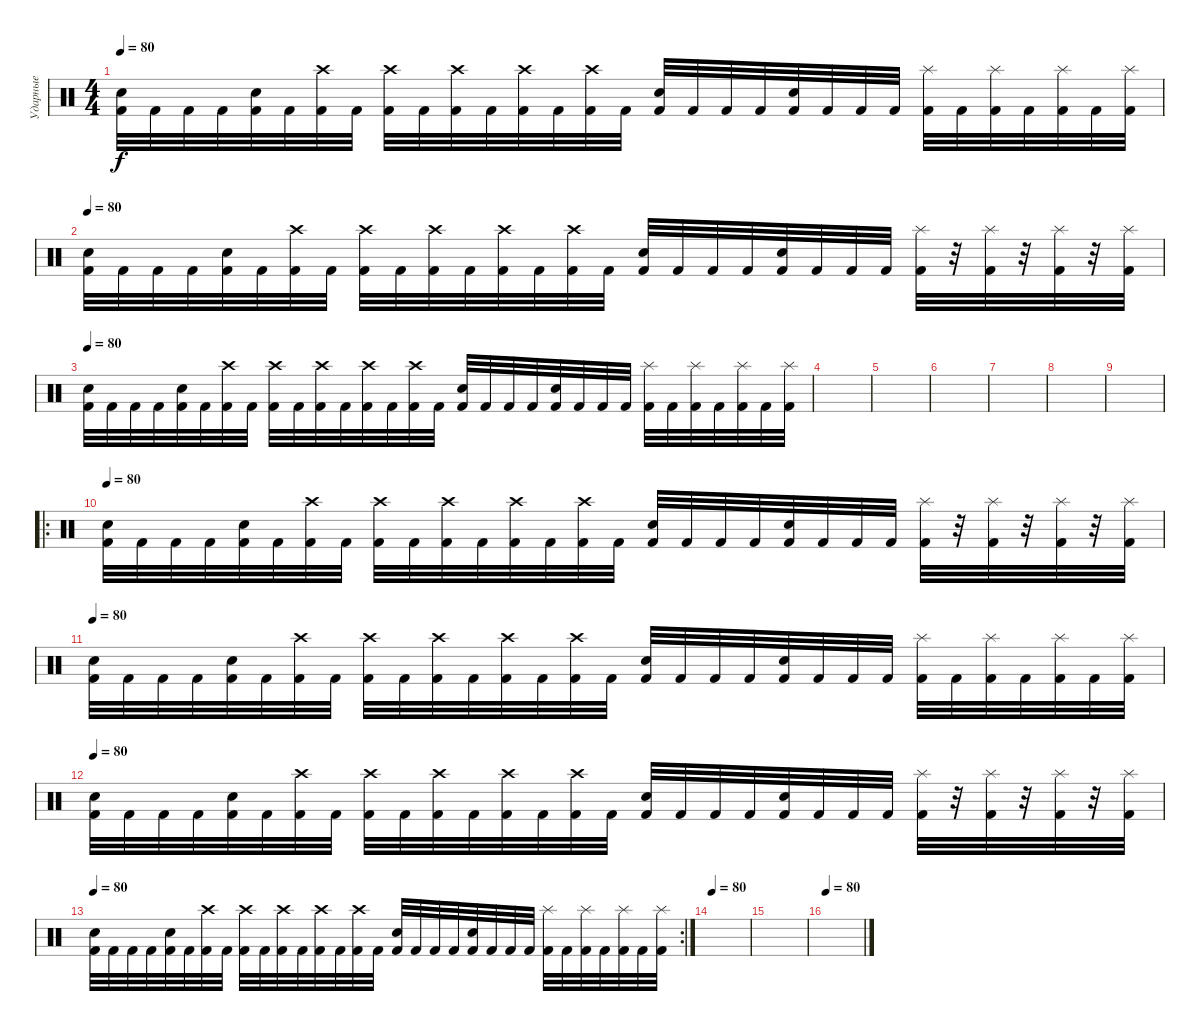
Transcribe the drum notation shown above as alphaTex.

\track ("Ударные" "Ударные") {instrument percussion}
\staff {score}
\articulation defaults
\ts (4 4)
\tempo 80
\clef neutral
\ks c
("Snare (hit) 2" "Kick (hit) 2").32{dy f} "Kick (hit) 2".32 "Kick (hit) 2".32 "Kick (hit) 2".32 ("Snare (hit) 2" "Kick (hit) 2").32 "Kick (hit) 2".32 ("Crash high (hit)" "Kick (hit) 2").32 "Kick (hit) 2".32 ("Crash high (hit)" "Kick (hit) 2").32 "Kick (hit) 2".32 ("Crash high (hit)" "Kick (hit) 2").32 "Kick (hit) 2".32 ("Crash high (hit)" "Kick (hit) 2").32 "Kick (hit) 2".32 ("Crash high (hit)" "Kick (hit) 2").32 "Kick (hit) 2".32 ("Snare (hit) 2" "Kick (hit) 2").32 "Kick (hit) 2".32 "Kick (hit) 2".32 "Kick (hit) 2".32 ("Snare (hit) 2" "Kick (hit) 2").32 "Kick (hit) 2".32 "Kick (hit) 2".32 "Kick (hit) 2".32 ("Splash (hit)" "Kick (hit) 2").32 "Kick (hit) 2".32 ("Splash (hit)" "Kick (hit) 2").32 "Kick (hit) 2".32 ("Splash (hit)" "Kick (hit) 2").32 "Kick (hit) 2".32 ("Splash (hit)" "Kick (hit) 2").32 |
\tempo 80
("Snare (hit) 2" "Kick (hit) 2").32{volume 16} "Kick (hit) 2".32 "Kick (hit) 2".32 "Kick (hit) 2".32 ("Snare (hit) 2" "Kick (hit) 2").32 "Kick (hit) 2".32 ("Crash high (hit)" "Kick (hit) 2").32 "Kick (hit) 2".32 ("Crash high (hit)" "Kick (hit) 2").32 "Kick (hit) 2".32 ("Crash high (hit)" "Kick (hit) 2").32 "Kick (hit) 2".32 ("Crash high (hit)" "Kick (hit) 2").32 "Kick (hit) 2".32 ("Crash high (hit)" "Kick (hit) 2").32 "Kick (hit) 2".32 ("Snare (hit) 2" "Kick (hit) 2").32 "Kick (hit) 2".32 "Kick (hit) 2".32 "Kick (hit) 2".32 ("Snare (hit) 2" "Kick (hit) 2").32 "Kick (hit) 2".32 "Kick (hit) 2".32 "Kick (hit) 2".32 ("Splash (hit)" "Kick (hit) 2").32 r.32 ("Splash (hit)" "Kick (hit) 2").32 r.32 ("Splash (hit)" "Kick (hit) 2").32 r.32 ("Splash (hit)" "Kick (hit) 2").32 |
\tempo 80
("Snare (hit) 2" "Kick (hit) 2").32 "Kick (hit) 2".32 "Kick (hit) 2".32 "Kick (hit) 2".32 ("Snare (hit) 2" "Kick (hit) 2").32 "Kick (hit) 2".32 ("Crash high (hit)" "Kick (hit) 2").32 "Kick (hit) 2".32 ("Crash high (hit)" "Kick (hit) 2").32 "Kick (hit) 2".32 ("Crash high (hit)" "Kick (hit) 2").32 "Kick (hit) 2".32 ("Crash high (hit)" "Kick (hit) 2").32 "Kick (hit) 2".32 ("Crash high (hit)" "Kick (hit) 2").32 "Kick (hit) 2".32 ("Snare (hit) 2" "Kick (hit) 2").32 "Kick (hit) 2".32 "Kick (hit) 2".32 "Kick (hit) 2".32 ("Snare (hit) 2" "Kick (hit) 2").32 "Kick (hit) 2".32 "Kick (hit) 2".32 "Kick (hit) 2".32 ("Splash (hit)" "Kick (hit) 2").32 "Kick (hit) 2".32 ("Splash (hit)" "Kick (hit) 2").32 "Kick (hit) 2".32 ("Splash (hit)" "Kick (hit) 2").32 "Kick (hit) 2".32 ("Splash (hit)" "Kick (hit) 2").32 |
|
|
|
|
|
|
\ro
\tempo 80
("Snare (hit) 2" "Kick (hit) 2").32{volume 16} "Kick (hit) 2".32 "Kick (hit) 2".32 "Kick (hit) 2".32 ("Snare (hit) 2" "Kick (hit) 2").32 "Kick (hit) 2".32 ("Crash high (hit)" "Kick (hit) 2").32 "Kick (hit) 2".32 ("Crash high (hit)" "Kick (hit) 2").32 "Kick (hit) 2".32 ("Crash high (hit)" "Kick (hit) 2").32 "Kick (hit) 2".32 ("Crash high (hit)" "Kick (hit) 2").32 "Kick (hit) 2".32 ("Crash high (hit)" "Kick (hit) 2").32 "Kick (hit) 2".32 ("Snare (hit) 2" "Kick (hit) 2").32 "Kick (hit) 2".32 "Kick (hit) 2".32 "Kick (hit) 2".32 ("Snare (hit) 2" "Kick (hit) 2").32 "Kick (hit) 2".32 "Kick (hit) 2".32 "Kick (hit) 2".32 ("Splash (hit)" "Kick (hit) 2").32 r.32 ("Splash (hit)" "Kick (hit) 2").32 r.32 ("Splash (hit)" "Kick (hit) 2").32 r.32 ("Splash (hit)" "Kick (hit) 2").32 |
\tempo 80
("Snare (hit) 2" "Kick (hit) 2").32 "Kick (hit) 2".32 "Kick (hit) 2".32 "Kick (hit) 2".32 ("Snare (hit) 2" "Kick (hit) 2").32 "Kick (hit) 2".32 ("Crash high (hit)" "Kick (hit) 2").32 "Kick (hit) 2".32 ("Crash high (hit)" "Kick (hit) 2").32 "Kick (hit) 2".32 ("Crash high (hit)" "Kick (hit) 2").32 "Kick (hit) 2".32 ("Crash high (hit)" "Kick (hit) 2").32 "Kick (hit) 2".32 ("Crash high (hit)" "Kick (hit) 2").32 "Kick (hit) 2".32 ("Snare (hit) 2" "Kick (hit) 2").32 "Kick (hit) 2".32 "Kick (hit) 2".32 "Kick (hit) 2".32 ("Snare (hit) 2" "Kick (hit) 2").32 "Kick (hit) 2".32 "Kick (hit) 2".32 "Kick (hit) 2".32 ("Splash (hit)" "Kick (hit) 2").32 "Kick (hit) 2".32 ("Splash (hit)" "Kick (hit) 2").32 "Kick (hit) 2".32 ("Splash (hit)" "Kick (hit) 2").32 "Kick (hit) 2".32 ("Splash (hit)" "Kick (hit) 2").32 |
\tempo 80
("Snare (hit) 2" "Kick (hit) 2").32{volume 16} "Kick (hit) 2".32 "Kick (hit) 2".32 "Kick (hit) 2".32 ("Snare (hit) 2" "Kick (hit) 2").32 "Kick (hit) 2".32 ("Crash high (hit)" "Kick (hit) 2").32 "Kick (hit) 2".32 ("Crash high (hit)" "Kick (hit) 2").32 "Kick (hit) 2".32 ("Crash high (hit)" "Kick (hit) 2").32 "Kick (hit) 2".32 ("Crash high (hit)" "Kick (hit) 2").32 "Kick (hit) 2".32 ("Crash high (hit)" "Kick (hit) 2").32 "Kick (hit) 2".32 ("Snare (hit) 2" "Kick (hit) 2").32 "Kick (hit) 2".32 "Kick (hit) 2".32 "Kick (hit) 2".32 ("Snare (hit) 2" "Kick (hit) 2").32 "Kick (hit) 2".32 "Kick (hit) 2".32 "Kick (hit) 2".32 ("Splash (hit)" "Kick (hit) 2").32 r.32 ("Splash (hit)" "Kick (hit) 2").32 r.32 ("Splash (hit)" "Kick (hit) 2").32 r.32 ("Splash (hit)" "Kick (hit) 2").32 |
\rc 2
\tempo 80
("Snare (hit) 2" "Kick (hit) 2").32 "Kick (hit) 2".32 "Kick (hit) 2".32 "Kick (hit) 2".32 ("Snare (hit) 2" "Kick (hit) 2").32 "Kick (hit) 2".32 ("Crash high (hit)" "Kick (hit) 2").32 "Kick (hit) 2".32 ("Crash high (hit)" "Kick (hit) 2").32 "Kick (hit) 2".32 ("Crash high (hit)" "Kick (hit) 2").32 "Kick (hit) 2".32 ("Crash high (hit)" "Kick (hit) 2").32 "Kick (hit) 2".32 ("Crash high (hit)" "Kick (hit) 2").32 "Kick (hit) 2".32 ("Snare (hit) 2" "Kick (hit) 2").32 "Kick (hit) 2".32 "Kick (hit) 2".32 "Kick (hit) 2".32 ("Snare (hit) 2" "Kick (hit) 2").32 "Kick (hit) 2".32 "Kick (hit) 2".32 "Kick (hit) 2".32 ("Splash (hit)" "Kick (hit) 2").32 "Kick (hit) 2".32 ("Splash (hit)" "Kick (hit) 2").32 "Kick (hit) 2".32 ("Splash (hit)" "Kick (hit) 2").32 "Kick (hit) 2".32 ("Splash (hit)" "Kick (hit) 2").32 |
\tempo 80
|
|
\tempo 80
